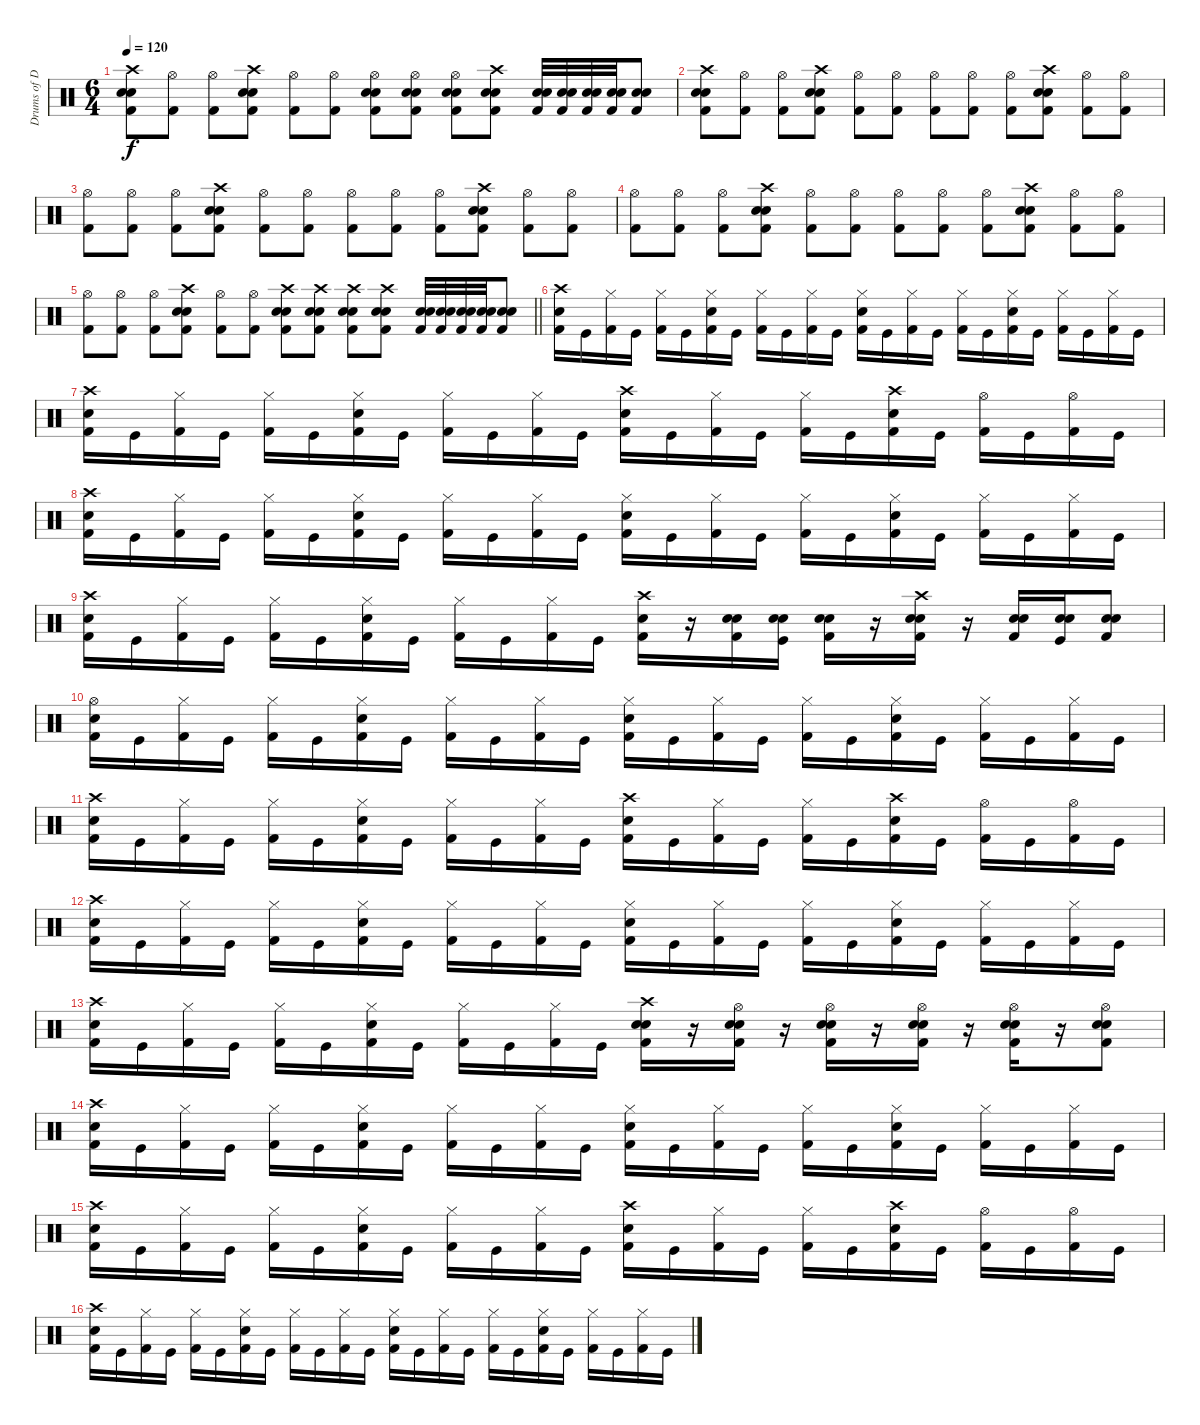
\track ("Drums of Doom" "Drums of D") {instrument percussion}
\staff {score}
\articulation defaults
\ts (6 4)
\tempo 120
\clef neutral
\ks c
("Crash high (hit)" "Snare (hit) 2" "Electric Snare (hit)" "Kick (hit) 2").8{dy f} ("Hi-Hat (open)" "Kick (hit) 2").8 ("Hi-Hat (open)" "Kick (hit) 2").8 ("Crash high (hit)" "Snare (hit) 2" "Electric Snare (hit)" "Kick (hit) 2").8 ("Hi-Hat (open)" "Kick (hit) 2").8 ("Hi-Hat (open)" "Kick (hit) 2").8 ("Hi-Hat (open)" "Snare (hit) 2" "Electric Snare (hit)" "Kick (hit) 2").8 ("Hi-Hat (open)" "Snare (hit) 2" "Electric Snare (hit)" "Kick (hit) 2").8 ("Hi-Hat (open)" "Snare (hit) 2" "Electric Snare (hit)" "Kick (hit) 2").8 ("Crash high (hit)" "Snare (hit) 2" "Electric Snare (hit)" "Kick (hit) 2").8 ("Snare (hit) 2" "Electric Snare (hit)" "Kick (hit) 2").32 ("Snare (hit) 2" "Electric Snare (hit)" "Kick (hit) 2").32 ("Snare (hit) 2" "Electric Snare (hit)" "Kick (hit) 2").32 ("Snare (hit) 2" "Electric Snare (hit)" "Kick (hit) 2").32 ("Snare (hit) 2" "Electric Snare (hit)" "Kick (hit) 2").8 |
("Crash high (hit)" "Snare (hit) 2" "Electric Snare (hit)" "Kick (hit) 2").8 ("Hi-Hat (open)" "Kick (hit) 2").8 ("Hi-Hat (open)" "Kick (hit) 2").8 ("Crash high (hit)" "Snare (hit) 2" "Electric Snare (hit)" "Kick (hit) 2").8 ("Hi-Hat (open)" "Kick (hit) 2").8 ("Hi-Hat (open)" "Kick (hit) 2").8 ("Hi-Hat (open)" "Kick (hit) 2").8 ("Hi-Hat (open)" "Kick (hit) 2").8 ("Hi-Hat (open)" "Kick (hit) 2").8 ("Crash high (hit)" "Snare (hit) 2" "Electric Snare (hit)" "Kick (hit) 2").8 ("Hi-Hat (open)" "Kick (hit) 2").8 ("Hi-Hat (open)" "Kick (hit) 2").8 |
("Hi-Hat (open)" "Kick (hit) 2").8 ("Hi-Hat (open)" "Kick (hit) 2").8 ("Hi-Hat (open)" "Kick (hit) 2").8 ("Crash high (hit)" "Snare (hit) 2" "Electric Snare (hit)" "Kick (hit) 2").8 ("Hi-Hat (open)" "Kick (hit) 2").8 ("Hi-Hat (open)" "Kick (hit) 2").8 ("Hi-Hat (open)" "Kick (hit) 2").8 ("Hi-Hat (open)" "Kick (hit) 2").8 ("Hi-Hat (open)" "Kick (hit) 2").8 ("Crash high (hit)" "Snare (hit) 2" "Electric Snare (hit)" "Kick (hit) 2").8 ("Hi-Hat (open)" "Kick (hit) 2").8 ("Hi-Hat (open)" "Kick (hit) 2").8 |
("Hi-Hat (open)" "Kick (hit) 2").8 ("Hi-Hat (open)" "Kick (hit) 2").8 ("Hi-Hat (open)" "Kick (hit) 2").8 ("Crash high (hit)" "Snare (hit) 2" "Electric Snare (hit)" "Kick (hit) 2").8 ("Hi-Hat (open)" "Kick (hit) 2").8 ("Hi-Hat (open)" "Kick (hit) 2").8 ("Hi-Hat (open)" "Kick (hit) 2").8 ("Hi-Hat (open)" "Kick (hit) 2").8 ("Hi-Hat (open)" "Kick (hit) 2").8 ("Crash high (hit)" "Snare (hit) 2" "Electric Snare (hit)" "Kick (hit) 2").8 ("Hi-Hat (open)" "Kick (hit) 2").8 ("Hi-Hat (open)" "Kick (hit) 2").8 |
\barLineRight lightlight
("Hi-Hat (open)" "Kick (hit) 2").8 ("Hi-Hat (open)" "Kick (hit) 2").8 ("Hi-Hat (open)" "Kick (hit) 2").8 ("Crash high (hit)" "Snare (hit) 2" "Electric Snare (hit)" "Kick (hit) 2").8 ("Hi-Hat (open)" "Kick (hit) 2").8 ("Hi-Hat (open)" "Kick (hit) 2").8 ("Crash high (hit)" "Snare (hit) 2" "Electric Snare (hit)" "Kick (hit) 2").8 ("Crash high (hit)" "Snare (hit) 2" "Electric Snare (hit)" "Kick (hit) 2").8 ("Crash high (hit)" "Snare (hit) 2" "Electric Snare (hit)" "Kick (hit) 2").8 ("Crash high (hit)" "Snare (hit) 2" "Electric Snare (hit)" "Kick (hit) 2").8 ("Snare (hit) 2" "Electric Snare (hit)" "Kick (hit) 2").32 ("Snare (hit) 2" "Electric Snare (hit)" "Kick (hit) 2").32 ("Snare (hit) 2" "Electric Snare (hit)" "Kick (hit) 2").32 ("Snare (hit) 2" "Electric Snare (hit)" "Kick (hit) 2").32 ("Snare (hit) 2" "Electric Snare (hit)" "Kick (hit) 2").8 |
("Crash high (hit)" "Snare (hit) 2" "Kick (hit) 2").16 "Kick (hit)".16 ("Hi-Hat (closed)" "Kick (hit) 2").16 "Kick (hit)".16 ("Hi-Hat (closed)" "Kick (hit) 2").16 "Kick (hit)".16 ("Hi-Hat (closed)" "Snare (hit) 2" "Kick (hit) 2").16 "Kick (hit)".16 ("Hi-Hat (closed)" "Kick (hit) 2").16 "Kick (hit)".16 ("Hi-Hat (closed)" "Kick (hit) 2").16 "Kick (hit)".16 ("Hi-Hat (closed)" "Snare (hit) 2" "Kick (hit) 2").16 "Kick (hit)".16 ("Hi-Hat (closed)" "Kick (hit) 2").16 "Kick (hit)".16 ("Hi-Hat (closed)" "Kick (hit) 2").16 "Kick (hit)".16 ("Hi-Hat (closed)" "Snare (hit) 2" "Kick (hit) 2").16 "Kick (hit)".16 ("Hi-Hat (closed)" "Kick (hit) 2").16 "Kick (hit)".16 ("Hi-Hat (closed)" "Kick (hit) 2").16 "Kick (hit)".16 |
("Crash high (hit)" "Snare (hit) 2" "Kick (hit) 2").16 "Kick (hit)".16 ("Hi-Hat (closed)" "Kick (hit) 2").16 "Kick (hit)".16 ("Hi-Hat (closed)" "Kick (hit) 2").16 "Kick (hit)".16 ("Hi-Hat (closed)" "Snare (hit) 2" "Kick (hit) 2").16 "Kick (hit)".16 ("Hi-Hat (closed)" "Kick (hit) 2").16 "Kick (hit)".16 ("Hi-Hat (closed)" "Kick (hit) 2").16 "Kick (hit)".16 ("Crash high (hit)" "Snare (hit) 2" "Kick (hit) 2").16 "Kick (hit)".16 ("Hi-Hat (closed)" "Kick (hit) 2").16 "Kick (hit)".16 ("Hi-Hat (closed)" "Kick (hit) 2").16 "Kick (hit)".16 ("Crash high (hit)" "Snare (hit) 2" "Kick (hit) 2").16 "Kick (hit)".16 ("Hi-Hat (open)" "Kick (hit) 2").16 "Kick (hit)".16 ("Hi-Hat (open)" "Kick (hit) 2").16 "Kick (hit)".16 |
("Crash high (hit)" "Snare (hit) 2" "Kick (hit) 2").16 "Kick (hit)".16 ("Hi-Hat (closed)" "Kick (hit) 2").16 "Kick (hit)".16 ("Hi-Hat (closed)" "Kick (hit) 2").16 "Kick (hit)".16 ("Hi-Hat (closed)" "Snare (hit) 2" "Kick (hit) 2").16 "Kick (hit)".16 ("Hi-Hat (closed)" "Kick (hit) 2").16 "Kick (hit)".16 ("Hi-Hat (closed)" "Kick (hit) 2").16 "Kick (hit)".16 ("Hi-Hat (closed)" "Snare (hit) 2" "Kick (hit) 2").16 "Kick (hit)".16 ("Hi-Hat (closed)" "Kick (hit) 2").16 "Kick (hit)".16 ("Hi-Hat (closed)" "Kick (hit) 2").16 "Kick (hit)".16 ("Hi-Hat (closed)" "Snare (hit) 2" "Kick (hit) 2").16 "Kick (hit)".16 ("Hi-Hat (closed)" "Kick (hit) 2").16 "Kick (hit)".16 ("Hi-Hat (closed)" "Kick (hit) 2").16 "Kick (hit)".16 |
("Crash high (hit)" "Snare (hit) 2" "Kick (hit) 2").16 "Kick (hit)".16 ("Hi-Hat (closed)" "Kick (hit) 2").16 "Kick (hit)".16 ("Hi-Hat (closed)" "Kick (hit) 2").16 "Kick (hit)".16 ("Hi-Hat (closed)" "Snare (hit) 2" "Kick (hit) 2").16 "Kick (hit)".16 ("Hi-Hat (closed)" "Kick (hit) 2").16 "Kick (hit)".16 ("Hi-Hat (closed)" "Kick (hit) 2").16 "Kick (hit)".16 ("Crash high (hit)" "Snare (hit) 2" "Kick (hit) 2").16 r.16 ("Snare (hit) 2" "Electric Snare (hit)" "Kick (hit) 2").16 ("Snare (hit) 2" "Electric Snare (hit)" "Kick (hit)").16 ("Snare (hit) 2" "Electric Snare (hit)" "Kick (hit) 2").16 r.16 ("Crash high (hit)" "Electric Snare (hit)" "Snare (hit) 2" "Kick (hit) 2").16 r.16 ("Electric Snare (hit)" "Snare (hit) 2" "Kick (hit) 2").16 ("Electric Snare (hit)" "Snare (hit) 2" "Kick (hit)").16 ("Electric Snare (hit)" "Snare (hit) 2" "Kick (hit) 2").8 |
("Hi-Hat (open)" "Snare (hit) 2" "Kick (hit) 2").16 "Kick (hit)".16 ("Hi-Hat (closed)" "Kick (hit) 2").16 "Kick (hit)".16 ("Hi-Hat (closed)" "Kick (hit) 2").16 "Kick (hit)".16 ("Hi-Hat (closed)" "Snare (hit) 2" "Kick (hit) 2").16 "Kick (hit)".16 ("Hi-Hat (closed)" "Kick (hit) 2").16 "Kick (hit)".16 ("Hi-Hat (closed)" "Kick (hit) 2").16 "Kick (hit)".16 ("Hi-Hat (closed)" "Snare (hit) 2" "Kick (hit) 2").16 "Kick (hit)".16 ("Hi-Hat (closed)" "Kick (hit) 2").16 "Kick (hit)".16 ("Hi-Hat (closed)" "Kick (hit) 2").16 "Kick (hit)".16 ("Hi-Hat (closed)" "Snare (hit) 2" "Kick (hit) 2").16 "Kick (hit)".16 ("Hi-Hat (closed)" "Kick (hit) 2").16 "Kick (hit)".16 ("Hi-Hat (closed)" "Kick (hit) 2").16 "Kick (hit)".16 |
("Crash high (hit)" "Snare (hit) 2" "Kick (hit) 2").16 "Kick (hit)".16 ("Hi-Hat (closed)" "Kick (hit) 2").16 "Kick (hit)".16 ("Hi-Hat (closed)" "Kick (hit) 2").16 "Kick (hit)".16 ("Hi-Hat (closed)" "Snare (hit) 2" "Kick (hit) 2").16 "Kick (hit)".16 ("Hi-Hat (closed)" "Kick (hit) 2").16 "Kick (hit)".16 ("Hi-Hat (closed)" "Kick (hit) 2").16 "Kick (hit)".16 ("Crash high (hit)" "Snare (hit) 2" "Kick (hit) 2").16 "Kick (hit)".16 ("Hi-Hat (closed)" "Kick (hit) 2").16 "Kick (hit)".16 ("Hi-Hat (closed)" "Kick (hit) 2").16 "Kick (hit)".16 ("Crash high (hit)" "Snare (hit) 2" "Kick (hit) 2").16 "Kick (hit)".16 ("Hi-Hat (open)" "Kick (hit) 2").16 "Kick (hit)".16 ("Hi-Hat (open)" "Kick (hit) 2").16 "Kick (hit)".16 |
("Crash high (hit)" "Snare (hit) 2" "Kick (hit) 2").16 "Kick (hit)".16 ("Hi-Hat (closed)" "Kick (hit) 2").16 "Kick (hit)".16 ("Hi-Hat (closed)" "Kick (hit) 2").16 "Kick (hit)".16 ("Hi-Hat (closed)" "Snare (hit) 2" "Kick (hit) 2").16 "Kick (hit)".16 ("Hi-Hat (closed)" "Kick (hit) 2").16 "Kick (hit)".16 ("Hi-Hat (closed)" "Kick (hit) 2").16 "Kick (hit)".16 ("Hi-Hat (closed)" "Snare (hit) 2" "Kick (hit) 2").16 "Kick (hit)".16 ("Hi-Hat (closed)" "Kick (hit) 2").16 "Kick (hit)".16 ("Hi-Hat (closed)" "Kick (hit) 2").16 "Kick (hit)".16 ("Hi-Hat (closed)" "Snare (hit) 2" "Kick (hit) 2").16 "Kick (hit)".16 ("Hi-Hat (closed)" "Kick (hit) 2").16 "Kick (hit)".16 ("Hi-Hat (closed)" "Kick (hit) 2").16 "Kick (hit)".16 |
("Crash high (hit)" "Snare (hit) 2" "Kick (hit) 2").16 "Kick (hit)".16 ("Hi-Hat (closed)" "Kick (hit) 2").16 "Kick (hit)".16 ("Hi-Hat (closed)" "Kick (hit) 2").16 "Kick (hit)".16 ("Hi-Hat (closed)" "Snare (hit) 2" "Kick (hit) 2").16 "Kick (hit)".16 ("Hi-Hat (closed)" "Kick (hit) 2").16 "Kick (hit)".16 ("Hi-Hat (closed)" "Kick (hit) 2").16 "Kick (hit)".16 ("Crash high (hit)" "Electric Snare (hit)" "Snare (hit) 2" "Kick (hit) 2").16 r.16 ("Hi-Hat (open)" "Electric Snare (hit)" "Snare (hit) 2" "Kick (hit) 2").16 r.16 ("Hi-Hat (open)" "Electric Snare (hit)" "Snare (hit) 2" "Kick (hit) 2").16 r.16 ("Hi-Hat (open)" "Electric Snare (hit)" "Snare (hit) 2" "Kick (hit) 2").16 r.16 ("Hi-Hat (open)" "Electric Snare (hit)" "Snare (hit) 2" "Kick (hit) 2").16 r.16 ("Hi-Hat (open)" "Electric Snare (hit)" "Snare (hit) 2" "Kick (hit) 2").8 |
("Crash high (hit)" "Snare (hit) 2" "Kick (hit) 2").16 "Kick (hit)".16 ("Hi-Hat (closed)" "Kick (hit) 2").16 "Kick (hit)".16 ("Hi-Hat (closed)" "Kick (hit) 2").16 "Kick (hit)".16 ("Hi-Hat (closed)" "Snare (hit) 2" "Kick (hit) 2").16 "Kick (hit)".16 ("Hi-Hat (closed)" "Kick (hit) 2").16 "Kick (hit)".16 ("Hi-Hat (closed)" "Kick (hit) 2").16 "Kick (hit)".16 ("Hi-Hat (closed)" "Snare (hit) 2" "Kick (hit) 2").16 "Kick (hit)".16 ("Hi-Hat (closed)" "Kick (hit) 2").16 "Kick (hit)".16 ("Hi-Hat (closed)" "Kick (hit) 2").16 "Kick (hit)".16 ("Hi-Hat (closed)" "Snare (hit) 2" "Kick (hit) 2").16 "Kick (hit)".16 ("Hi-Hat (closed)" "Kick (hit) 2").16 "Kick (hit)".16 ("Hi-Hat (closed)" "Kick (hit) 2").16 "Kick (hit)".16 |
("Crash high (hit)" "Snare (hit) 2" "Kick (hit) 2").16 "Kick (hit)".16 ("Hi-Hat (closed)" "Kick (hit) 2").16 "Kick (hit)".16 ("Hi-Hat (closed)" "Kick (hit) 2").16 "Kick (hit)".16 ("Hi-Hat (closed)" "Snare (hit) 2" "Kick (hit) 2").16 "Kick (hit)".16 ("Hi-Hat (closed)" "Kick (hit) 2").16 "Kick (hit)".16 ("Hi-Hat (closed)" "Kick (hit) 2").16 "Kick (hit)".16 ("Crash high (hit)" "Snare (hit) 2" "Kick (hit) 2").16 "Kick (hit)".16 ("Hi-Hat (closed)" "Kick (hit) 2").16 "Kick (hit)".16 ("Hi-Hat (closed)" "Kick (hit) 2").16 "Kick (hit)".16 ("Crash high (hit)" "Snare (hit) 2" "Kick (hit) 2").16 "Kick (hit)".16 ("Hi-Hat (open)" "Kick (hit) 2").16 "Kick (hit)".16 ("Hi-Hat (open)" "Kick (hit) 2").16 "Kick (hit)".16 |
("Crash high (hit)" "Snare (hit) 2" "Kick (hit) 2").16 "Kick (hit)".16 ("Hi-Hat (closed)" "Kick (hit) 2").16 "Kick (hit)".16 ("Hi-Hat (closed)" "Kick (hit) 2").16 "Kick (hit)".16 ("Hi-Hat (closed)" "Snare (hit) 2" "Kick (hit) 2").16 "Kick (hit)".16 ("Hi-Hat (closed)" "Kick (hit) 2").16 "Kick (hit)".16 ("Hi-Hat (closed)" "Kick (hit) 2").16 "Kick (hit)".16 ("Hi-Hat (closed)" "Snare (hit) 2" "Kick (hit) 2").16 "Kick (hit)".16 ("Hi-Hat (closed)" "Kick (hit) 2").16 "Kick (hit)".16 ("Hi-Hat (closed)" "Kick (hit) 2").16 "Kick (hit)".16 ("Hi-Hat (closed)" "Snare (hit) 2" "Kick (hit) 2").16 "Kick (hit)".16 ("Hi-Hat (closed)" "Kick (hit) 2").16 "Kick (hit)".16 ("Hi-Hat (closed)" "Kick (hit) 2").16 "Kick (hit)".16
